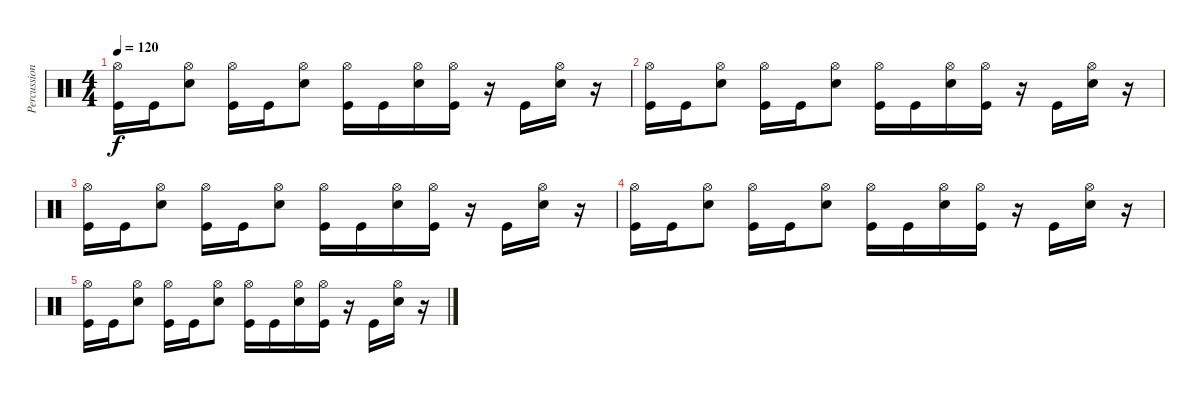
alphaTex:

\track ("Percussion" "Percussion") {instrument percussion}
\staff {score}
\articulation defaults
\ts (4 4)
\tempo 120
\clef neutral
\ks c
("Hi-Hat (open)" "Kick (hit)").16{dy f} "Kick (hit)".16 ("Hi-Hat (open)" "Snare (hit) 2").8 ("Hi-Hat (open)" "Kick (hit)").16 "Kick (hit)".16 ("Hi-Hat (open)" "Snare (hit) 2").8 ("Hi-Hat (open)" "Kick (hit)").16 "Kick (hit)".16 ("Hi-Hat (open)" "Snare (hit) 2").16 ("Hi-Hat (open)" "Kick (hit)").16 r.16 "Kick (hit)".16 ("Hi-Hat (open)" "Snare (hit) 2").16 r.16 |
("Hi-Hat (open)" "Kick (hit)").16 "Kick (hit)".16 ("Hi-Hat (open)" "Snare (hit) 2").8 ("Hi-Hat (open)" "Kick (hit)").16 "Kick (hit)".16 ("Hi-Hat (open)" "Snare (hit) 2").8 ("Hi-Hat (open)" "Kick (hit)").16 "Kick (hit)".16 ("Hi-Hat (open)" "Snare (hit) 2").16 ("Hi-Hat (open)" "Kick (hit)").16 r.16 "Kick (hit)".16 ("Hi-Hat (open)" "Snare (hit) 2").16 r.16 |
("Hi-Hat (open)" "Kick (hit)").16 "Kick (hit)".16 ("Hi-Hat (open)" "Snare (hit) 2").8 ("Hi-Hat (open)" "Kick (hit)").16 "Kick (hit)".16 ("Hi-Hat (open)" "Snare (hit) 2").8 ("Hi-Hat (open)" "Kick (hit)").16 "Kick (hit)".16 ("Hi-Hat (open)" "Snare (hit) 2").16 ("Hi-Hat (open)" "Kick (hit)").16 r.16 "Kick (hit)".16 ("Hi-Hat (open)" "Snare (hit) 2").16 r.16 |
("Hi-Hat (open)" "Kick (hit)").16 "Kick (hit)".16 ("Hi-Hat (open)" "Snare (hit) 2").8 ("Hi-Hat (open)" "Kick (hit)").16 "Kick (hit)".16 ("Hi-Hat (open)" "Snare (hit) 2").8 ("Hi-Hat (open)" "Kick (hit)").16 "Kick (hit)".16 ("Hi-Hat (open)" "Snare (hit) 2").16 ("Hi-Hat (open)" "Kick (hit)").16 r.16 "Kick (hit)".16 ("Hi-Hat (open)" "Snare (hit) 2").16 r.16 |
("Hi-Hat (open)" "Kick (hit)").16 "Kick (hit)".16 ("Hi-Hat (open)" "Snare (hit) 2").8 ("Hi-Hat (open)" "Kick (hit)").16 "Kick (hit)".16 ("Hi-Hat (open)" "Snare (hit) 2").8 ("Hi-Hat (open)" "Kick (hit)").16 "Kick (hit)".16 ("Hi-Hat (open)" "Snare (hit) 2").16 ("Hi-Hat (open)" "Kick (hit)").16 r.16 "Kick (hit)".16 ("Hi-Hat (open)" "Snare (hit) 2").16 r.16
